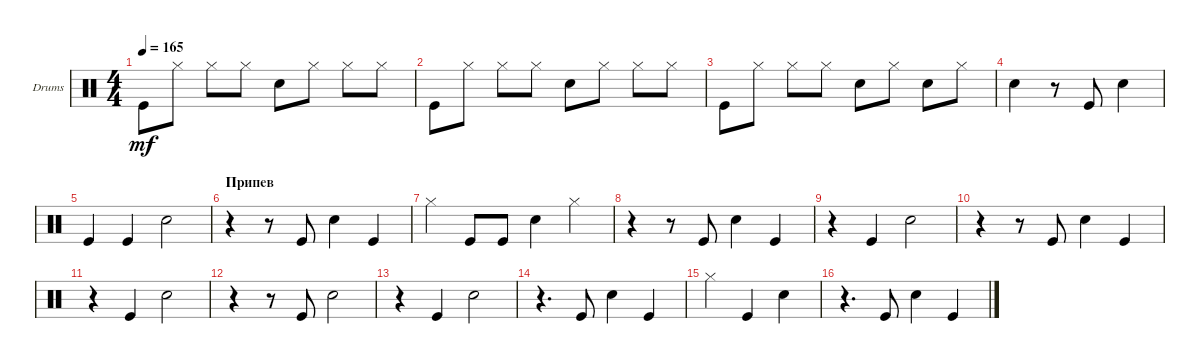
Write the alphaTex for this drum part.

\bracketExtendMode groupsimilarinstruments
\firstSystemTrackNameOrientation horizontal
\otherSystemsTrackNameOrientation horizontal
\track ("Pen Tapping" "Drums") {instrument percussion}
\staff {score}
\articulation defaults
\ts (4 4)
\tempo 165
\clef neutral
\ks c "Kick (hit)".8{dy mf} "Hi-Hat (closed)".8 "Hi-Hat (closed)".8 "Hi-Hat (closed)".8 "Snare (hit) 2".8 "Hi-Hat (closed)".8 "Hi-Hat (closed)".8 "Hi-Hat (closed)".8
|
"Kick (hit)".8 "Hi-Hat (closed)".8 "Hi-Hat (closed)".8 "Hi-Hat (closed)".8 "Snare (hit) 2".8 "Hi-Hat (closed)".8 "Hi-Hat (closed)".8 "Hi-Hat (closed)".8 |
"Kick (hit)".8 "Hi-Hat (closed)".8 "Hi-Hat (closed)".8 "Hi-Hat (closed)".8 "Snare (hit) 2".8 "Hi-Hat (closed)".8 "Snare (hit) 2".8 "Hi-Hat (closed)".8 |
"Snare (hit) 2".4 r.8 "Kick (hit)".8 "Snare (hit) 2".4 |
\scale
0.322034 "Kick (hit)".4 "Kick (hit)".4 "Snare (hit) 2".2 |
\section ("" "Припев")
\scale
0.333333 r.4 r.8 "Kick (hit)".8 "Snare (hit) 2".4 "Kick (hit)".4 |
\scale
0.333333 "Hi-Hat (closed)".4 "Kick (hit)".8 "Kick (hit)".8 "Snare (hit) 2".4 "Hi-Hat (closed)".4 |
\scale
0.333333 r.4 r.8 "Kick (hit)".8 "Snare (hit) 2".4 "Kick (hit)".4 |
\scale
0.333333 r.4 "Kick (hit)".4 "Snare (hit) 2".2 |
\scale
0.333333 r.4 r.8 "Kick (hit)".8 "Snare (hit) 2".4 "Kick (hit)".4 |
\scale
0.333333 r.4 "Kick (hit)".4 "Snare (hit) 2".2 |
\scale
0.333333 r.4 r.8 "Kick (hit)".8 "Snare (hit) 2".2 |
\scale
0.333333 r.4 "Kick (hit)".4 "Snare (hit) 2".2 |
\scale
0.333333 r.4{d} "Kick (hit)".8 "Snare (hit) 2".4 "Kick (hit)".4 |
\scale
0.333333 "Hi-Hat (closed)".4 "Kick (hit)".4 "Snare (hit) 2".4 |
\scale
0.333333 r.4{d} "Kick (hit)".8 "Snare (hit) 2".4 "Kick (hit)".4
